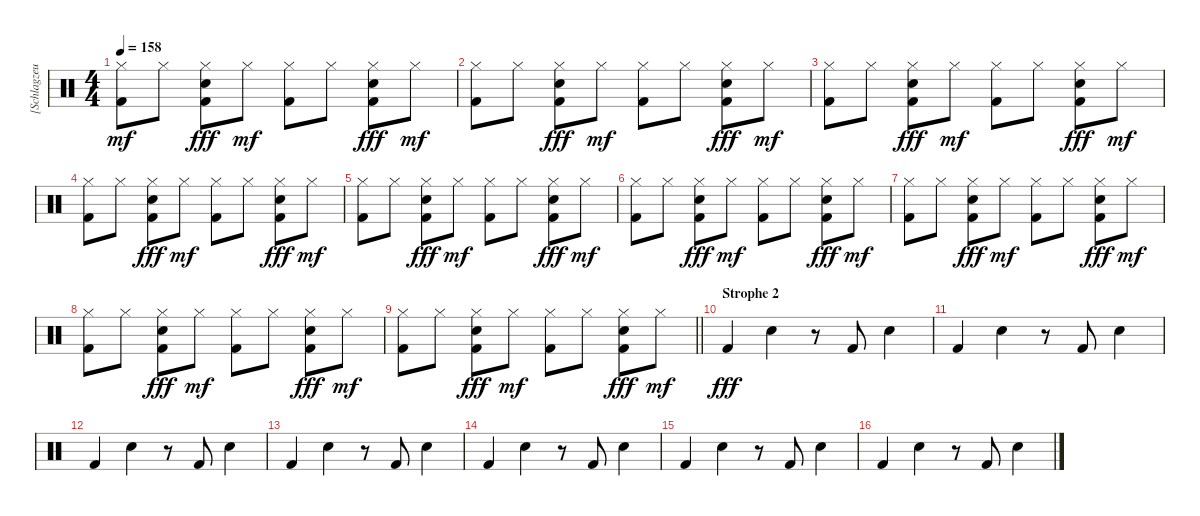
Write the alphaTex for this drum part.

\track ("[Schlagzeug]" "[Schlagzeu") {instrument percussion}
\staff {score}
\articulation defaults
\ts (4 4)
\tempo 158
\clef neutral
\ks c
("Kick (hit) 2" "Hi-Hat (closed)").8{dy mf} "Hi-Hat (closed)".8 ("Electric Snare (hit)" "Hi-Hat (closed)" "Kick (hit) 2").8{dy fff} "Hi-Hat (closed)".8{dy mf} ("Kick (hit) 2" "Hi-Hat (closed)").8 "Hi-Hat (closed)".8 ("Electric Snare (hit)" "Hi-Hat (closed)" "Kick (hit) 2").8{dy fff} "Hi-Hat (closed)".8{dy mf} |
("Kick (hit) 2" "Hi-Hat (closed)").8 "Hi-Hat (closed)".8 ("Electric Snare (hit)" "Hi-Hat (closed)" "Kick (hit) 2").8{dy fff} "Hi-Hat (closed)".8{dy mf} ("Kick (hit) 2" "Hi-Hat (closed)").8 "Hi-Hat (closed)".8 ("Electric Snare (hit)" "Hi-Hat (closed)" "Kick (hit) 2").8{dy fff} "Hi-Hat (closed)".8{dy mf} |
("Kick (hit) 2" "Hi-Hat (closed)").8 "Hi-Hat (closed)".8 ("Electric Snare (hit)" "Hi-Hat (closed)" "Kick (hit) 2").8{dy fff} "Hi-Hat (closed)".8{dy mf} ("Kick (hit) 2" "Hi-Hat (closed)").8 "Hi-Hat (closed)".8 ("Electric Snare (hit)" "Hi-Hat (closed)" "Kick (hit) 2").8{dy fff} "Hi-Hat (closed)".8{dy mf} |
("Kick (hit) 2" "Hi-Hat (closed)").8 "Hi-Hat (closed)".8 ("Electric Snare (hit)" "Hi-Hat (closed)" "Kick (hit) 2").8{dy fff} "Hi-Hat (closed)".8{dy mf} ("Kick (hit) 2" "Hi-Hat (closed)").8 "Hi-Hat (closed)".8 ("Electric Snare (hit)" "Hi-Hat (closed)" "Kick (hit) 2").8{dy fff} "Hi-Hat (closed)".8{dy mf} |
("Kick (hit) 2" "Hi-Hat (closed)").8 "Hi-Hat (closed)".8 ("Electric Snare (hit)" "Hi-Hat (closed)" "Kick (hit) 2").8{dy fff} "Hi-Hat (closed)".8{dy mf} ("Kick (hit) 2" "Hi-Hat (closed)").8 "Hi-Hat (closed)".8 ("Electric Snare (hit)" "Hi-Hat (closed)" "Kick (hit) 2").8{dy fff} "Hi-Hat (closed)".8{dy mf} |
("Kick (hit) 2" "Hi-Hat (closed)").8 "Hi-Hat (closed)".8 ("Electric Snare (hit)" "Hi-Hat (closed)" "Kick (hit) 2").8{dy fff} "Hi-Hat (closed)".8{dy mf} ("Kick (hit) 2" "Hi-Hat (closed)").8 "Hi-Hat (closed)".8 ("Electric Snare (hit)" "Hi-Hat (closed)" "Kick (hit) 2").8{dy fff} "Hi-Hat (closed)".8{dy mf} |
("Kick (hit) 2" "Hi-Hat (closed)").8 "Hi-Hat (closed)".8 ("Electric Snare (hit)" "Hi-Hat (closed)" "Kick (hit) 2").8{dy fff} "Hi-Hat (closed)".8{dy mf} ("Kick (hit) 2" "Hi-Hat (closed)").8 "Hi-Hat (closed)".8 ("Electric Snare (hit)" "Hi-Hat (closed)" "Kick (hit) 2").8{dy fff} "Hi-Hat (closed)".8{dy mf} |
("Kick (hit) 2" "Hi-Hat (closed)").8 "Hi-Hat (closed)".8 ("Electric Snare (hit)" "Hi-Hat (closed)" "Kick (hit) 2").8{dy fff} "Hi-Hat (closed)".8{dy mf} ("Kick (hit) 2" "Hi-Hat (closed)").8 "Hi-Hat (closed)".8 ("Electric Snare (hit)" "Hi-Hat (closed)" "Kick (hit) 2").8{dy fff} "Hi-Hat (closed)".8{dy mf} |
\barLineRight lightlight
("Kick (hit) 2" "Hi-Hat (closed)").8 "Hi-Hat (closed)".8 ("Electric Snare (hit)" "Hi-Hat (closed)" "Kick (hit) 2").8{dy fff} "Hi-Hat (closed)".8{dy mf} ("Kick (hit) 2" "Hi-Hat (closed)").8 "Hi-Hat (closed)".8 ("Electric Snare (hit)" "Hi-Hat (closed)" "Kick (hit) 2").8{dy fff} "Hi-Hat (closed)".8{dy mf} |
\section ("" "Strophe 2")
"Kick (hit) 2".4{dy fff} "Electric Snare (hit)".4 r.8 "Kick (hit) 2".8 "Electric Snare (hit)".4 |
"Kick (hit) 2".4 "Electric Snare (hit)".4 r.8 "Kick (hit) 2".8 "Electric Snare (hit)".4 |
"Kick (hit) 2".4 "Electric Snare (hit)".4 r.8 "Kick (hit) 2".8 "Electric Snare (hit)".4 |
"Kick (hit) 2".4 "Electric Snare (hit)".4 r.8 "Kick (hit) 2".8 "Electric Snare (hit)".4 |
"Kick (hit) 2".4 "Electric Snare (hit)".4 r.8 "Kick (hit) 2".8 "Electric Snare (hit)".4 |
"Kick (hit) 2".4 "Electric Snare (hit)".4 r.8 "Kick (hit) 2".8 "Electric Snare (hit)".4 |
"Kick (hit) 2".4 "Electric Snare (hit)".4 r.8 "Kick (hit) 2".8 "Electric Snare (hit)".4
